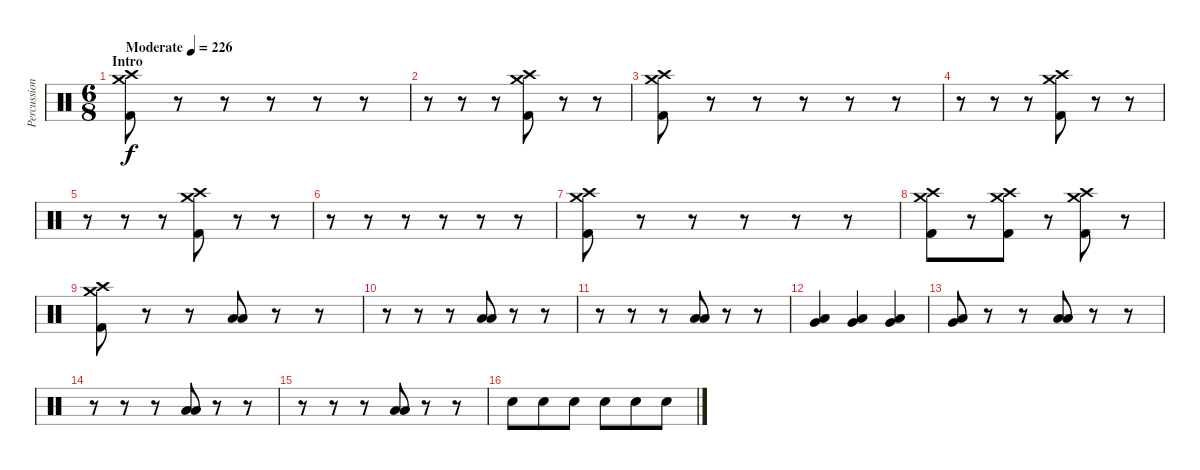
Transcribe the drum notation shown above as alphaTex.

\track ("Percussion" "Percussion") {instrument percussion}
\staff {score}
\articulation defaults
\ts (6 8)
\section ("" "Intro")
\tempo (226 "Moderate")
\clef neutral
\ks c
("Crash high (hit)" "Crash medium (hit)" "Kick (hit) 2").8{dy f} r.8{volume 0} r.8 r.8 r.8 r.8 |
r.8 r.8 r.8 ("Crash high (hit)" "Crash medium (hit)" "Kick (hit) 2").8{volume 13} r.8{volume 0} r.8 |
("Crash high (hit)" "Crash medium (hit)" "Kick (hit) 2").8{volume 13} r.8{volume 0} r.8 r.8 r.8 r.8 |
r.8 r.8 r.8 ("Crash high (hit)" "Crash medium (hit)" "Kick (hit) 2").8{volume 13} r.8{volume 0} r.8 |
r.8 r.8 r.8 ("Crash high (hit)" "Crash medium (hit)" "Kick (hit) 2").8{volume 13} r.8{volume 0} r.8 |
r.8 r.8 r.8 r.8 r.8 r.8 |
("Crash high (hit)" "Crash medium (hit)" "Kick (hit) 2").8{volume 13} r.8{volume 0} r.8 r.8 r.8 r.8 |
("Crash high (hit)" "Crash medium (hit)" "Kick (hit) 2").8{volume 13} r.8{volume 0} ("Crash high (hit)" "Crash medium (hit)" "Kick (hit) 2").8{volume 13} r.8{volume 0} ("Crash high (hit)" "Crash medium (hit)" "Kick (hit) 2").8{volume 13} r.8{volume 0} |
("Crash high (hit)" "Crash medium (hit)" "Kick (hit) 2").8{volume 13} r.8{volume 0} r.8{volume 0} ("Low Tom (hit)" "Low Floor Tom (hit)").8{volume 13} r.8 r.8 |
r.8 r.8 r.8 ("Low Tom (hit)" "Low Floor Tom (hit)").8 r.8 r.8 |
r.8 r.8 r.8 ("Low Tom (hit)" "Low Floor Tom (hit)").8 r.8 r.8 |
("Low Tom (hit)" "Very Low Tom (hit)").4 ("Low Tom (hit)" "Very Low Tom (hit)").4 ("Low Tom (hit)" "Very Low Tom (hit)").4 |
("Low Tom (hit)" "Very Low Tom (hit)").8 r.8 r.8 ("Low Tom (hit)" "Low Floor Tom (hit)").8 r.8 r.8 |
r.8 r.8 r.8 ("Low Tom (hit)" "Low Floor Tom (hit)").8 r.8 r.8 |
r.8 r.8 r.8 ("Low Tom (hit)" "Low Floor Tom (hit)").8 r.8 r.8 |
"Electric Snare (hit)".8 "Electric Snare (hit)".8 "Electric Snare (hit)".8 "Electric Snare (hit)".8 "Electric Snare (hit)".8 "Electric Snare (hit)".8
